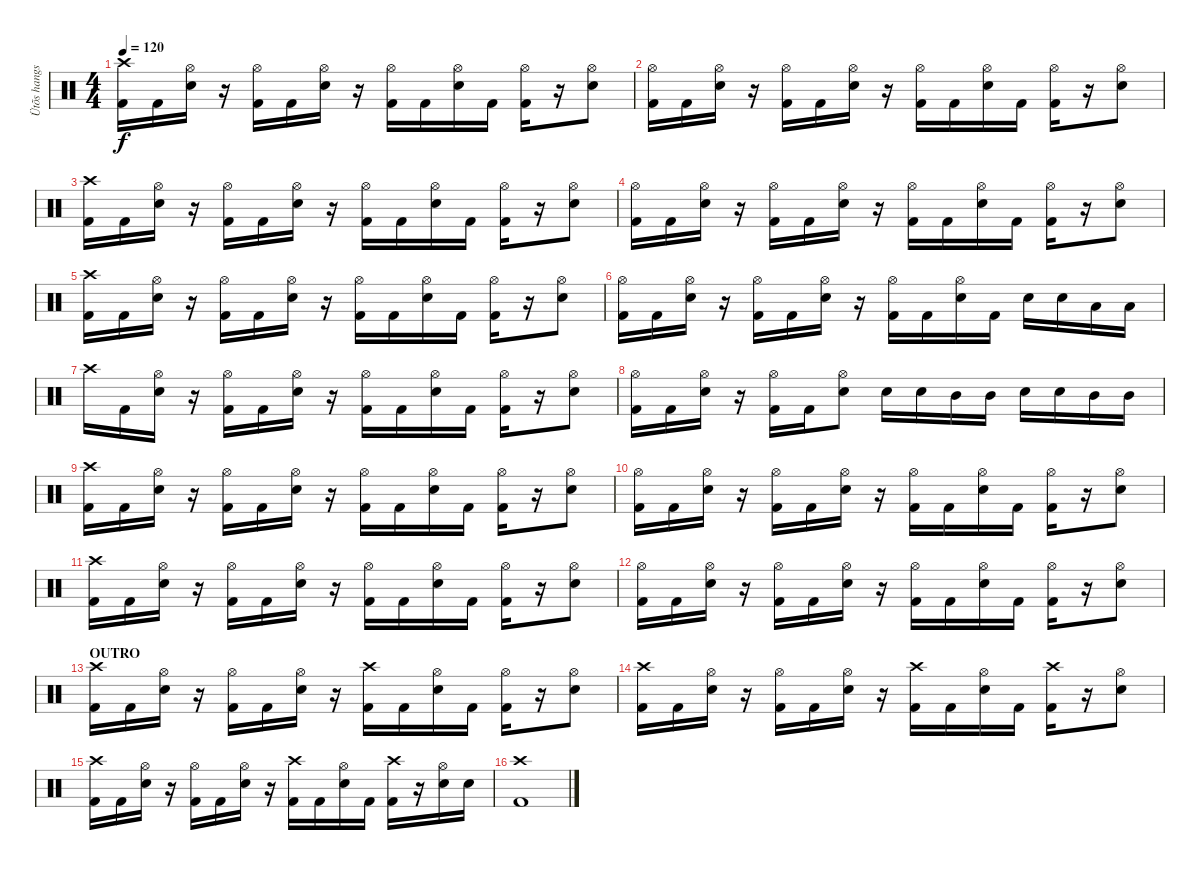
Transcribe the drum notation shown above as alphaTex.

\track ("Ütõs hangszer" "Ütõs hangs") {instrument percussion}
\staff {score}
\articulation defaults
\ts (4 4)
\tempo 120
\clef neutral
\ks c
("Crash high (hit)" "Kick (hit) 2").16{dy f} "Kick (hit) 2".16 ("Hi-Hat (open)" "Snare (hit) 2").16 r.16 ("Hi-Hat (open)" "Kick (hit) 2").16 "Kick (hit) 2".16 ("Hi-Hat (open)" "Snare (hit) 2").16 r.16 ("Hi-Hat (open)" "Kick (hit) 2").16 "Kick (hit) 2".16 ("Hi-Hat (open)" "Snare (hit) 2").16 "Kick (hit) 2".16 ("Hi-Hat (open)" "Kick (hit) 2").16 r.16 ("Hi-Hat (open)" "Snare (hit) 2").8 |
("Hi-Hat (open)" "Kick (hit) 2").16 "Kick (hit) 2".16 ("Hi-Hat (open)" "Snare (hit) 2").16 r.16 ("Hi-Hat (open)" "Kick (hit) 2").16 "Kick (hit) 2".16 ("Hi-Hat (open)" "Snare (hit) 2").16 r.16 ("Hi-Hat (open)" "Kick (hit) 2").16 "Kick (hit) 2".16 ("Hi-Hat (open)" "Snare (hit) 2").16 "Kick (hit) 2".16 ("Hi-Hat (open)" "Kick (hit) 2").16 r.16 ("Hi-Hat (open)" "Snare (hit) 2").8 |
("Crash high (hit)" "Kick (hit) 2").16 "Kick (hit) 2".16 ("Hi-Hat (open)" "Snare (hit) 2").16 r.16 ("Hi-Hat (open)" "Kick (hit) 2").16 "Kick (hit) 2".16 ("Hi-Hat (open)" "Snare (hit) 2").16 r.16 ("Hi-Hat (open)" "Kick (hit) 2").16 "Kick (hit) 2".16 ("Hi-Hat (open)" "Snare (hit) 2").16 "Kick (hit) 2".16 ("Hi-Hat (open)" "Kick (hit) 2").16 r.16 ("Hi-Hat (open)" "Snare (hit) 2").8 |
("Hi-Hat (open)" "Kick (hit) 2").16 "Kick (hit) 2".16 ("Hi-Hat (open)" "Snare (hit) 2").16 r.16 ("Hi-Hat (open)" "Kick (hit) 2").16 "Kick (hit) 2".16 ("Hi-Hat (open)" "Snare (hit) 2").16 r.16 ("Hi-Hat (open)" "Kick (hit) 2").16 "Kick (hit) 2".16 ("Hi-Hat (open)" "Snare (hit) 2").16 "Kick (hit) 2".16 ("Hi-Hat (open)" "Kick (hit) 2").16 r.16 ("Hi-Hat (open)" "Snare (hit) 2").8 |
("Crash high (hit)" "Kick (hit) 2").16 "Kick (hit) 2".16 ("Hi-Hat (open)" "Snare (hit) 2").16 r.16 ("Hi-Hat (open)" "Kick (hit) 2").16 "Kick (hit) 2".16 ("Hi-Hat (open)" "Snare (hit) 2").16 r.16 ("Hi-Hat (open)" "Kick (hit) 2").16 "Kick (hit) 2".16 ("Hi-Hat (open)" "Snare (hit) 2").16 "Kick (hit) 2".16 ("Hi-Hat (open)" "Kick (hit) 2").16 r.16 ("Hi-Hat (open)" "Snare (hit) 2").8 |
("Hi-Hat (open)" "Kick (hit) 2").16 "Kick (hit) 2".16 ("Hi-Hat (open)" "Snare (hit) 2").16 r.16 ("Hi-Hat (open)" "Kick (hit) 2").16 "Kick (hit) 2".16 ("Hi-Hat (open)" "Snare (hit) 2").16 r.16 ("Hi-Hat (open)" "Kick (hit) 2").16 "Kick (hit) 2".16 ("Hi-Hat (open)" "Snare (hit) 2").16 "Kick (hit) 2".16 "Snare (hit) 2".16 "Snare (hit) 2".16 "Low Tom (hit)".16 "Low Tom (hit)".16 |
"Crash high (hit)".16 "Kick (hit) 2".16 ("Hi-Hat (open)" "Snare (hit) 2").16 r.16 ("Hi-Hat (open)" "Kick (hit) 2").16 "Kick (hit) 2".16 ("Hi-Hat (open)" "Snare (hit) 2").16 r.16 ("Hi-Hat (open)" "Kick (hit) 2").16 "Kick (hit) 2".16 ("Hi-Hat (open)" "Snare (hit) 2").16 "Kick (hit) 2".16 ("Hi-Hat (open)" "Kick (hit) 2").16 r.16 ("Hi-Hat (open)" "Snare (hit) 2").8 |
("Hi-Hat (open)" "Kick (hit) 2").16 "Kick (hit) 2".16 ("Hi-Hat (open)" "Snare (hit) 2").16 r.16 ("Hi-Hat (open)" "Kick (hit) 2").16 "Kick (hit) 2".16 ("Hi-Hat (open)" "Snare (hit) 2").8 "Snare (hit) 2".16 "Snare (hit) 2".16 "Mid Tom (hit)".16 "Mid Tom (hit)".16 "Snare (hit) 2".16 "Snare (hit) 2".16 "Mid Tom (hit)".16 "Mid Tom (hit)".16 |
("Crash high (hit)" "Kick (hit) 2").16 "Kick (hit) 2".16 ("Hi-Hat (open)" "Snare (hit) 2").16 r.16 ("Hi-Hat (open)" "Kick (hit) 2").16 "Kick (hit) 2".16 ("Hi-Hat (open)" "Snare (hit) 2").16 r.16 ("Hi-Hat (open)" "Kick (hit) 2").16 "Kick (hit) 2".16 ("Hi-Hat (open)" "Snare (hit) 2").16 "Kick (hit) 2".16 ("Hi-Hat (open)" "Kick (hit) 2").16 r.16 ("Hi-Hat (open)" "Snare (hit) 2").8 |
("Hi-Hat (open)" "Kick (hit) 2").16 "Kick (hit) 2".16 ("Hi-Hat (open)" "Snare (hit) 2").16 r.16 ("Hi-Hat (open)" "Kick (hit) 2").16 "Kick (hit) 2".16 ("Hi-Hat (open)" "Snare (hit) 2").16 r.16 ("Hi-Hat (open)" "Kick (hit) 2").16 "Kick (hit) 2".16 ("Hi-Hat (open)" "Snare (hit) 2").16 "Kick (hit) 2".16 ("Hi-Hat (open)" "Kick (hit) 2").16 r.16 ("Hi-Hat (open)" "Snare (hit) 2").8 |
("Crash high (hit)" "Kick (hit) 2").16 "Kick (hit) 2".16 ("Hi-Hat (open)" "Snare (hit) 2").16 r.16 ("Hi-Hat (open)" "Kick (hit) 2").16 "Kick (hit) 2".16 ("Hi-Hat (open)" "Snare (hit) 2").16 r.16 ("Hi-Hat (open)" "Kick (hit) 2").16 "Kick (hit) 2".16 ("Hi-Hat (open)" "Snare (hit) 2").16 "Kick (hit) 2".16 ("Hi-Hat (open)" "Kick (hit) 2").16 r.16 ("Hi-Hat (open)" "Snare (hit) 2").8 |
("Hi-Hat (open)" "Kick (hit) 2").16 "Kick (hit) 2".16 ("Hi-Hat (open)" "Snare (hit) 2").16 r.16 ("Hi-Hat (open)" "Kick (hit) 2").16 "Kick (hit) 2".16 ("Hi-Hat (open)" "Snare (hit) 2").16 r.16 ("Hi-Hat (open)" "Kick (hit) 2").16 "Kick (hit) 2".16 ("Hi-Hat (open)" "Snare (hit) 2").16 "Kick (hit) 2".16 ("Hi-Hat (open)" "Kick (hit) 2").16 r.16 ("Hi-Hat (open)" "Snare (hit) 2").8 |
\section ("" "OUTRO")
("Crash high (hit)" "Kick (hit) 2").16 "Kick (hit) 2".16 ("Hi-Hat (open)" "Snare (hit) 2").16 r.16 ("Hi-Hat (open)" "Kick (hit) 2").16 "Kick (hit) 2".16 ("Hi-Hat (open)" "Snare (hit) 2").16 r.16 ("Crash high (hit)" "Kick (hit) 2").16 "Kick (hit) 2".16 ("Hi-Hat (open)" "Snare (hit) 2").16 "Kick (hit) 2".16 ("Hi-Hat (open)" "Kick (hit) 2").16 r.16 ("Hi-Hat (open)" "Snare (hit) 2").8 |
("Crash high (hit)" "Kick (hit) 2").16 "Kick (hit) 2".16 ("Hi-Hat (open)" "Snare (hit) 2").16 r.16 ("Hi-Hat (open)" "Kick (hit) 2").16 "Kick (hit) 2".16 ("Hi-Hat (open)" "Snare (hit) 2").16 r.16 ("Crash high (hit)" "Kick (hit) 2").16 "Kick (hit) 2".16 ("Hi-Hat (open)" "Snare (hit) 2").16 "Kick (hit) 2".16 ("Crash high (hit)" "Kick (hit) 2").16 r.16 ("Hi-Hat (open)" "Snare (hit) 2").8 |
("Crash high (hit)" "Kick (hit) 2").16 "Kick (hit) 2".16 ("Hi-Hat (open)" "Snare (hit) 2").16 r.16 ("Hi-Hat (open)" "Kick (hit) 2").16 "Kick (hit) 2".16 ("Hi-Hat (open)" "Snare (hit) 2").16 r.16 ("Crash high (hit)" "Kick (hit) 2").16 "Kick (hit) 2".16 ("Hi-Hat (open)" "Snare (hit) 2").16 "Kick (hit) 2".16 ("Crash high (hit)" "Kick (hit) 2").16 r.16 ("Hi-Hat (open)" "Snare (hit) 2").16 "Snare (hit) 2".16 |
("Crash high (hit)" "Kick (hit) 2").1
